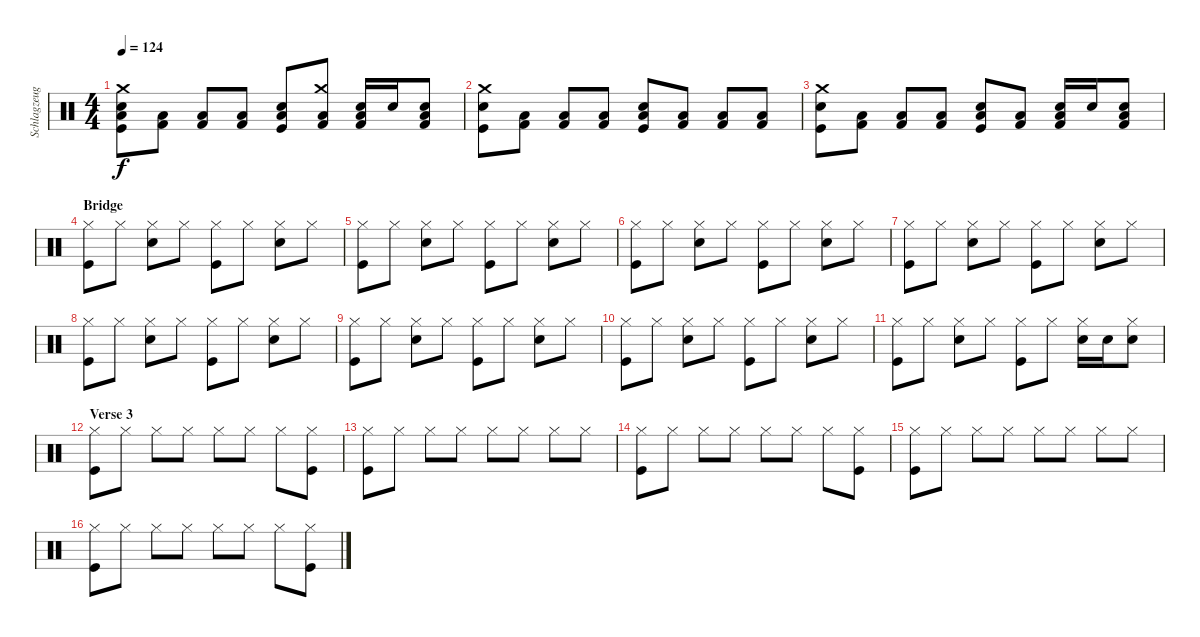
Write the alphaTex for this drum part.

\track ("Schlagzeug - Bela B." "Schlagzeug") {instrument percussion}
\staff {score}
\articulation defaults
\ts (4 4)
\tempo 124
\clef neutral
\ks c
("Low Floor Tom (hit)" "Kick (hit)" "Snare (hit) 2" "Crash medium (hit)").8{dy f} ("Low Floor Tom (hit)" "Kick (hit) 2").8 ("Low Floor Tom (hit)" "Kick (hit) 2").8 ("Low Floor Tom (hit)" "Kick (hit) 2").8 ("Low Floor Tom (hit)" "Kick (hit)" "Snare (hit) 2").8 ("Low Floor Tom (hit)" "Kick (hit) 2" "Crash medium (hit)").8 ("Low Floor Tom (hit)" "Kick (hit) 2" "Snare (hit) 2").16 "Snare (hit) 2".16 ("Low Floor Tom (hit)" "Kick (hit) 2" "Snare (hit) 2").8 |
("Kick (hit)" "Snare (hit) 2" "Crash medium (hit)").8 ("Low Floor Tom (hit)" "Kick (hit) 2").8 ("Low Floor Tom (hit)" "Kick (hit) 2").8 ("Low Floor Tom (hit)" "Kick (hit) 2").8 ("Low Floor Tom (hit)" "Kick (hit)" "Snare (hit) 2").8 ("Low Floor Tom (hit)" "Kick (hit) 2").8 ("Low Floor Tom (hit)" "Kick (hit) 2").8 ("Low Floor Tom (hit)" "Kick (hit) 2").8 |
("Kick (hit)" "Snare (hit) 2" "Crash medium (hit)").8 ("Low Floor Tom (hit)" "Kick (hit) 2").8 ("Low Floor Tom (hit)" "Kick (hit) 2").8 ("Low Floor Tom (hit)" "Kick (hit) 2").8 ("Low Floor Tom (hit)" "Kick (hit)" "Snare (hit) 2").8 ("Low Floor Tom (hit)" "Kick (hit) 2").8 ("Low Floor Tom (hit)" "Kick (hit) 2" "Snare (hit) 2").16 "Snare (hit) 2".16 ("Low Floor Tom (hit)" "Kick (hit) 2" "Snare (hit) 2").8 |
\section ("" "Bridge")
("Kick (hit)" "Hi-Hat (closed)").8 "Hi-Hat (closed)".8 ("Snare (hit) 2" "Hi-Hat (closed)").8 "Hi-Hat (closed)".8 ("Kick (hit)" "Hi-Hat (closed)").8 "Hi-Hat (closed)".8 ("Snare (hit) 2" "Hi-Hat (closed)").8 "Hi-Hat (closed)".8 |
("Kick (hit)" "Hi-Hat (closed)").8 "Hi-Hat (closed)".8 ("Snare (hit) 2" "Hi-Hat (closed)").8 "Hi-Hat (closed)".8 ("Kick (hit)" "Hi-Hat (closed)").8 "Hi-Hat (closed)".8 ("Snare (hit) 2" "Hi-Hat (closed)").8 "Hi-Hat (closed)".8 |
("Kick (hit)" "Hi-Hat (closed)").8 "Hi-Hat (closed)".8 ("Snare (hit) 2" "Hi-Hat (closed)").8 "Hi-Hat (closed)".8 ("Kick (hit)" "Hi-Hat (closed)").8 "Hi-Hat (closed)".8 ("Snare (hit) 2" "Hi-Hat (closed)").8 "Hi-Hat (closed)".8 |
("Kick (hit)" "Hi-Hat (closed)").8 "Hi-Hat (closed)".8 ("Snare (hit) 2" "Hi-Hat (closed)").8 "Hi-Hat (closed)".8 ("Kick (hit)" "Hi-Hat (closed)").8 "Hi-Hat (closed)".8 ("Snare (hit) 2" "Hi-Hat (closed)").8 "Hi-Hat (closed)".8 |
("Kick (hit)" "Hi-Hat (closed)").8 "Hi-Hat (closed)".8 ("Snare (hit) 2" "Hi-Hat (closed)").8 "Hi-Hat (closed)".8 ("Kick (hit)" "Hi-Hat (closed)").8 "Hi-Hat (closed)".8 ("Snare (hit) 2" "Hi-Hat (closed)").8 "Hi-Hat (closed)".8 |
("Kick (hit)" "Hi-Hat (closed)").8 "Hi-Hat (closed)".8 ("Snare (hit) 2" "Hi-Hat (closed)").8 "Hi-Hat (closed)".8 ("Kick (hit)" "Hi-Hat (closed)").8 "Hi-Hat (closed)".8 ("Snare (hit) 2" "Hi-Hat (closed)").8 "Hi-Hat (closed)".8 |
("Kick (hit)" "Hi-Hat (closed)").8 "Hi-Hat (closed)".8 ("Snare (hit) 2" "Hi-Hat (closed)").8 "Hi-Hat (closed)".8 ("Kick (hit)" "Hi-Hat (closed)").8 "Hi-Hat (closed)".8 ("Snare (hit) 2" "Hi-Hat (closed)").8 "Hi-Hat (closed)".8 |
("Kick (hit)" "Hi-Hat (closed)").8 "Hi-Hat (closed)".8 ("Snare (hit) 2" "Hi-Hat (closed)").8 "Hi-Hat (closed)".8 ("Kick (hit)" "Hi-Hat (closed)").8 "Hi-Hat (closed)".8 ("Snare (hit) 2" "Hi-Hat (closed)").16 "Snare (hit) 2".16 ("Hi-Hat (closed)" "Snare (hit) 2").8 |
\section ("" "Verse 3")
("Kick (hit)" "Hi-Hat (closed)").8 "Hi-Hat (closed)".8 "Hi-Hat (closed)".8 "Hi-Hat (closed)".8 "Hi-Hat (closed)".8 "Hi-Hat (closed)".8 "Hi-Hat (closed)".8 ("Hi-Hat (closed)" "Kick (hit)").8 |
("Kick (hit)" "Hi-Hat (closed)").8 "Hi-Hat (closed)".8 "Hi-Hat (closed)".8 "Hi-Hat (closed)".8 "Hi-Hat (closed)".8 "Hi-Hat (closed)".8 "Hi-Hat (closed)".8 "Hi-Hat (closed)".8 |
("Kick (hit)" "Hi-Hat (closed)").8 "Hi-Hat (closed)".8 "Hi-Hat (closed)".8 "Hi-Hat (closed)".8 "Hi-Hat (closed)".8 "Hi-Hat (closed)".8 "Hi-Hat (closed)".8 ("Hi-Hat (closed)" "Kick (hit)").8 |
("Kick (hit)" "Hi-Hat (closed)").8 "Hi-Hat (closed)".8 "Hi-Hat (closed)".8 "Hi-Hat (closed)".8 "Hi-Hat (closed)".8 "Hi-Hat (closed)".8 "Hi-Hat (closed)".8 "Hi-Hat (closed)".8 |
("Kick (hit)" "Hi-Hat (closed)").8 "Hi-Hat (closed)".8 "Hi-Hat (closed)".8 "Hi-Hat (closed)".8 "Hi-Hat (closed)".8 "Hi-Hat (closed)".8 "Hi-Hat (closed)".8 ("Hi-Hat (closed)" "Kick (hit)").8
